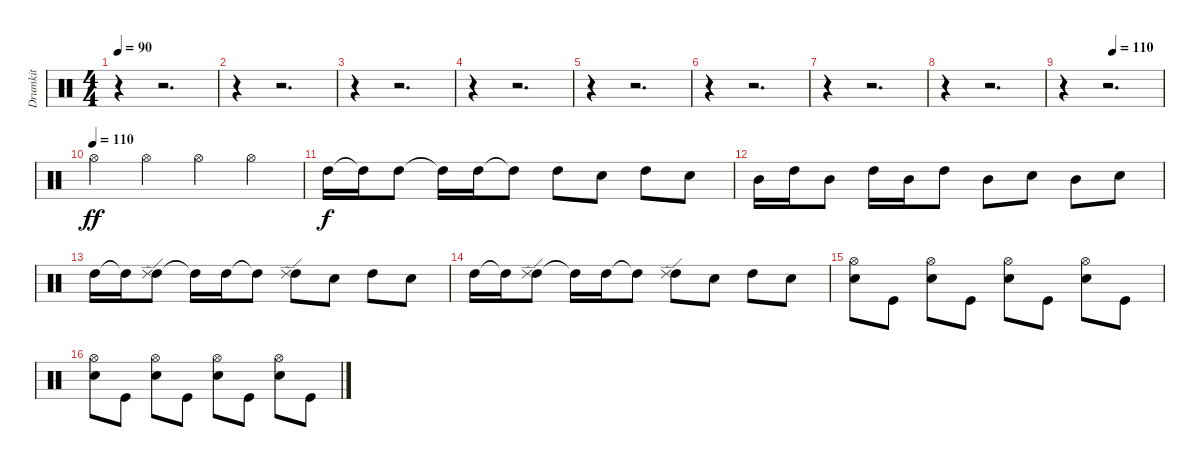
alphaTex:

\track ("Drumkit" "Drumkit") {instrument percussion}
\staff {score}
\articulation defaults
\ts (4 4)
\tempo 90
\clef neutral
\ks c
r.4{dy ff} r.2{d} |
r.4 r.2{d} |
r.4 r.2{d} |
r.4 r.2{d} |
r.4 r.2{d} |
r.4 r.2{d} |
r.4 r.2{d} |
r.4 r.2{d} |
\tempo (110 0.5)
r.4 r.2{d} |
\tempo (110)
"Hi-Hat (open)".4 "Hi-Hat (open)".4 "Hi-Hat (open)".4 "Hi-Hat (open)".4 |
"High Tom (hit)".16{dy f} "High Tom (hit)"{t}.16 "High Tom (hit)".8 "High Tom (hit)"{t}.16 "High Tom (hit)".16 "High Tom (hit)"{t}.8 "High Tom (hit)".8 "Snare (hit) 2".8 "High Tom (hit)".8 "Snare (hit) 2".8 |
"Mid Tom (hit)".16 "High Tom (hit)".16 "Mid Tom (hit)".8 "High Tom (hit)".16 "Mid Tom (hit)".16 "High Tom (hit)".8 "Mid Tom (hit)".8 "Snare (hit) 2".8 "Mid Tom (hit)".8 "Snare (hit) 2".8 |
"High Tom (hit)".16 "High Tom (hit)"{t}.16 ("High Tom (hit)" "Ride (edge) 2").8 "High Tom (hit)"{t}.16 "High Tom (hit)".16 "High Tom (hit)"{t}.8 ("High Tom (hit)" "Ride (edge) 2").8 "Snare (hit) 2".8 "High Tom (hit)".8 "Snare (hit) 2".8 |
"High Tom (hit)".16 "High Tom (hit)"{t}.16 ("High Tom (hit)" "Ride (edge) 2").8 "High Tom (hit)"{t}.16 "High Tom (hit)".16 "High Tom (hit)"{t}.8 ("High Tom (hit)" "Ride (edge) 2").8 "Snare (hit) 2".8 "High Tom (hit)".8 "Snare (hit) 2".8 |
("Hi-Hat (open)" "Snare (hit) 2").8 "Kick (hit)".8 ("Hi-Hat (open)" "Snare (hit) 2").8 "Kick (hit)".8 ("Hi-Hat (open)" "Snare (hit) 2").8 "Kick (hit)".8 ("Hi-Hat (open)" "Snare (hit) 2").8 "Kick (hit)".8 |
("Hi-Hat (open)" "Snare (hit) 2").8 "Kick (hit)".8 ("Hi-Hat (open)" "Snare (hit) 2").8 "Kick (hit)".8 ("Hi-Hat (open)" "Snare (hit) 2").8 "Kick (hit)".8 ("Hi-Hat (open)" "Snare (hit) 2").8 "Kick (hit)".8
